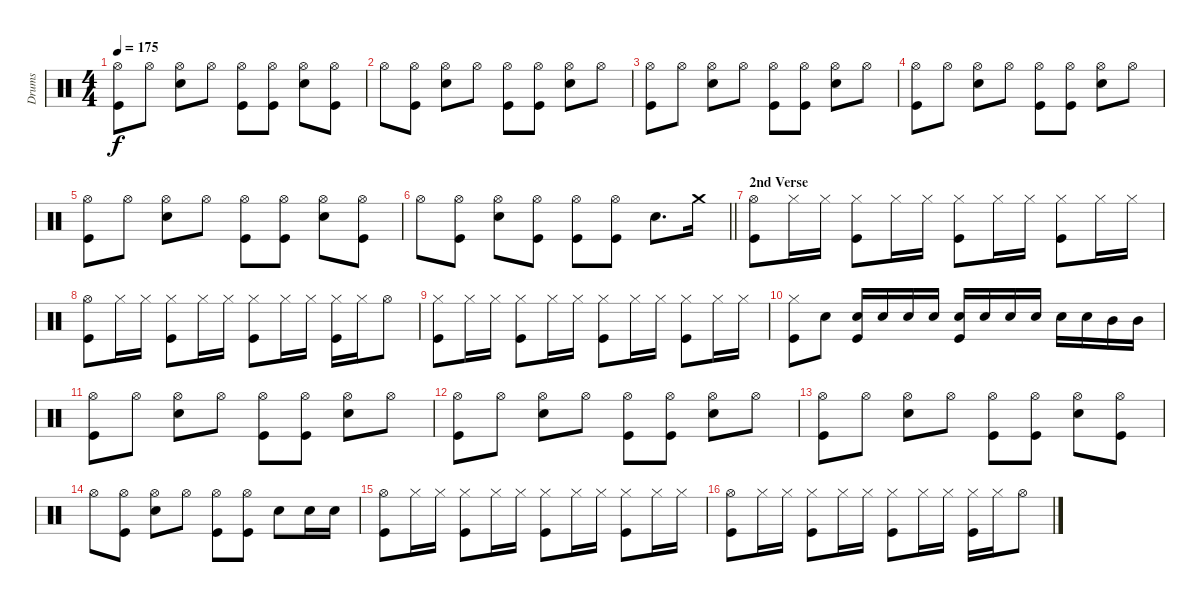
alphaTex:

\track ("Drums" "Drums") {instrument percussion}
\staff {score}
\articulation defaults
\ts (4 4)
\tempo 175
\clef neutral
\ks c
("Hi-Hat (open)" "Kick (hit)").8{dy f} "Hi-Hat (open)".8 ("Hi-Hat (open)" "Snare (hit) 2").8 "Hi-Hat (open)".8 ("Hi-Hat (open)" "Kick (hit)").8 ("Hi-Hat (open)" "Kick (hit)").8 ("Hi-Hat (open)" "Snare (hit) 2").8 ("Hi-Hat (open)" "Kick (hit)").8 |
"Hi-Hat (open)".8 ("Hi-Hat (open)" "Kick (hit)").8 ("Hi-Hat (open)" "Snare (hit) 2").8 "Hi-Hat (open)".8 ("Hi-Hat (open)" "Kick (hit)").8 ("Hi-Hat (open)" "Kick (hit)").8 ("Hi-Hat (open)" "Snare (hit) 2").8 "Hi-Hat (open)".8 |
("Hi-Hat (open)" "Kick (hit)").8 "Hi-Hat (open)".8 ("Hi-Hat (open)" "Snare (hit) 2").8 "Hi-Hat (open)".8 ("Hi-Hat (open)" "Kick (hit)").8 ("Hi-Hat (open)" "Kick (hit)").8 ("Hi-Hat (open)" "Snare (hit) 2").8 "Hi-Hat (open)".8 |
("Hi-Hat (open)" "Kick (hit)").8 "Hi-Hat (open)".8 ("Hi-Hat (open)" "Snare (hit) 2").8 "Hi-Hat (open)".8 ("Hi-Hat (open)" "Kick (hit)").8 ("Hi-Hat (open)" "Kick (hit)").8 ("Hi-Hat (open)" "Snare (hit) 2").8 "Hi-Hat (open)".8 |
("Hi-Hat (open)" "Kick (hit)").8 "Hi-Hat (open)".8 ("Hi-Hat (open)" "Snare (hit) 2").8 "Hi-Hat (open)".8 ("Hi-Hat (open)" "Kick (hit)").8 ("Hi-Hat (open)" "Kick (hit)").8 ("Hi-Hat (open)" "Snare (hit) 2").8 ("Hi-Hat (open)" "Kick (hit)").8 |
\barLineRight lightlight "Hi-Hat (open)".8
("Hi-Hat (open)" "Kick (hit)").8 ("Hi-Hat (open)" "Snare (hit) 2").8 ("Hi-Hat (open)" "Kick (hit)").8 ("Hi-Hat (open)" "Kick (hit)").8 ("Hi-Hat (open)" "Kick (hit)").8 "Snare (hit) 2".8{d} "Crash medium (hit)".16 |
\section ("" "2nd Verse")
("Hi-Hat (open)" "Kick (hit)").8 "Hi-Hat (closed)".16 "Hi-Hat (closed)".16 ("Hi-Hat (closed)" "Kick (hit)").8 "Hi-Hat (closed)".16 "Hi-Hat (closed)".16 ("Hi-Hat (closed)" "Kick (hit)").8 "Hi-Hat (closed)".16 "Hi-Hat (closed)".16 ("Hi-Hat (closed)" "Kick (hit)").8 "Hi-Hat (closed)".16 "Hi-Hat (closed)".16 |
("Hi-Hat (open)" "Kick (hit)").8 "Hi-Hat (closed)".16 "Hi-Hat (closed)".16 ("Hi-Hat (closed)" "Kick (hit)").8 "Hi-Hat (closed)".16 "Hi-Hat (closed)".16 ("Hi-Hat (closed)" "Kick (hit)").8 "Hi-Hat (closed)".16 "Hi-Hat (closed)".16 ("Hi-Hat (closed)" "Kick (hit)").16 "Hi-Hat (closed)".16 "Hi-Hat (open)".8 |
("Hi-Hat (closed)" "Kick (hit)").8 "Hi-Hat (closed)".16 "Hi-Hat (closed)".16 ("Hi-Hat (closed)" "Kick (hit)").8 "Hi-Hat (closed)".16 "Hi-Hat (closed)".16 ("Hi-Hat (closed)" "Kick (hit)").8 "Hi-Hat (closed)".16 "Hi-Hat (closed)".16 ("Hi-Hat (closed)" "Kick (hit)").8 "Hi-Hat (closed)".16 "Hi-Hat (closed)".16 |
("Hi-Hat (closed)" "Kick (hit)").8 "Snare (hit) 2".8 ("Snare (hit) 2" "Kick (hit)").16 "Snare (hit) 2".16 "Snare (hit) 2".16 "Snare (hit) 2".16 ("Snare (hit) 2" "Kick (hit)").16 "Snare (hit) 2".16 "Snare (hit) 2".16 "Snare (hit) 2".16 "Snare (hit) 2".16 "Snare (hit) 2".16 "Mid Tom (hit)".16 "Mid Tom (hit)".16 |
("Hi-Hat (open)" "Kick (hit)").8 "Hi-Hat (open)".8 ("Hi-Hat (open)" "Snare (hit) 2").8 "Hi-Hat (open)".8 ("Hi-Hat (open)" "Kick (hit)").8 ("Hi-Hat (open)" "Kick (hit)").8 ("Hi-Hat (open)" "Snare (hit) 2").8 "Hi-Hat (open)".8 |
("Hi-Hat (open)" "Kick (hit)").8 "Hi-Hat (open)".8 ("Hi-Hat (open)" "Snare (hit) 2").8 "Hi-Hat (open)".8 ("Hi-Hat (open)" "Kick (hit)").8 ("Hi-Hat (open)" "Kick (hit)").8 ("Hi-Hat (open)" "Snare (hit) 2").8 "Hi-Hat (open)".8 |
("Hi-Hat (open)" "Kick (hit)").8 "Hi-Hat (open)".8 ("Hi-Hat (open)" "Snare (hit) 2").8 "Hi-Hat (open)".8 ("Hi-Hat (open)" "Kick (hit)").8 ("Hi-Hat (open)" "Kick (hit)").8 ("Hi-Hat (open)" "Snare (hit) 2").8 ("Hi-Hat (open)" "Kick (hit)").8 |
"Hi-Hat (open)".8 ("Hi-Hat (open)" "Kick (hit)").8 ("Hi-Hat (open)" "Snare (hit) 2").8 "Hi-Hat (open)".8 ("Hi-Hat (open)" "Kick (hit)").8 ("Hi-Hat (open)" "Kick (hit)").8 "Snare (hit) 2".8 "Snare (hit) 2".16 "Snare (hit) 2".16 |
("Hi-Hat (open)" "Kick (hit)").8 "Hi-Hat (closed)".16 "Hi-Hat (closed)".16 ("Hi-Hat (closed)" "Kick (hit)").8 "Hi-Hat (closed)".16 "Hi-Hat (closed)".16 ("Hi-Hat (closed)" "Kick (hit)").8 "Hi-Hat (closed)".16 "Hi-Hat (closed)".16 ("Hi-Hat (closed)" "Kick (hit)").8 "Hi-Hat (closed)".16 "Hi-Hat (closed)".16 |
("Hi-Hat (open)" "Kick (hit)").8 "Hi-Hat (closed)".16 "Hi-Hat (closed)".16 ("Hi-Hat (closed)" "Kick (hit)").8 "Hi-Hat (closed)".16 "Hi-Hat (closed)".16 ("Hi-Hat (closed)" "Kick (hit)").8 "Hi-Hat (closed)".16 "Hi-Hat (closed)".16 ("Hi-Hat (closed)" "Kick (hit)").16 "Hi-Hat (closed)".16 "Hi-Hat (open)".8
